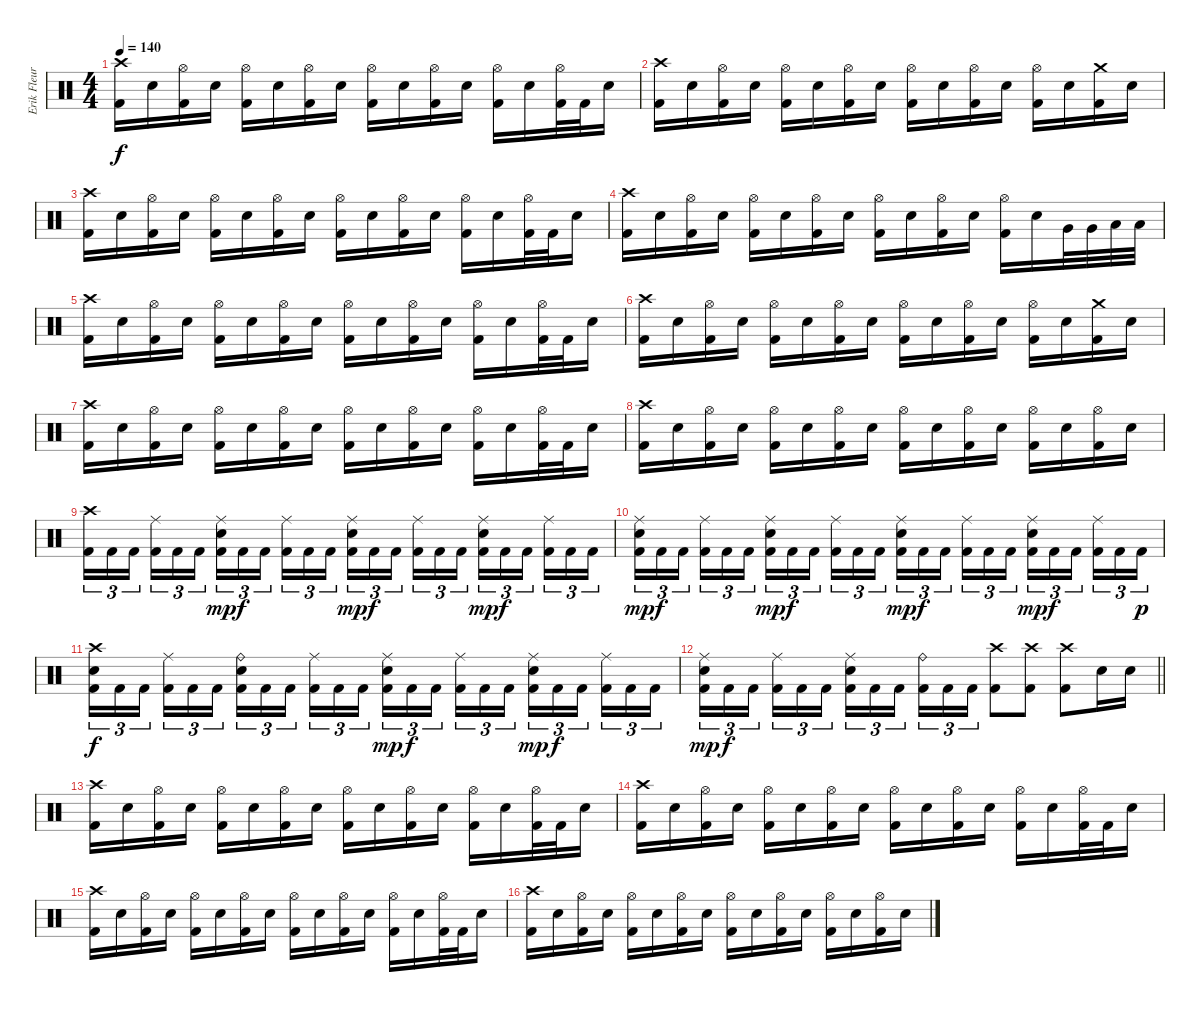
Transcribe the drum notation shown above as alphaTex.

\track ("Erik Fleuren" "Erik Fleur") {instrument percussion}
\staff {score}
\articulation defaults
\ts (4 4)
\tempo 140
\clef neutral
\ks c
("Crash high (hit)" "Kick (hit) 2").16{dy f} "Electric Snare (hit)".16 ("Hi-Hat (open)" "Kick (hit) 2").16 "Electric Snare (hit)".16 ("Hi-Hat (open)" "Kick (hit) 2").16 "Electric Snare (hit)".16 ("Hi-Hat (open)" "Kick (hit) 2").16 "Electric Snare (hit)".16 ("Hi-Hat (open)" "Kick (hit) 2").16 "Electric Snare (hit)".16 ("Hi-Hat (open)" "Kick (hit) 2").16 "Electric Snare (hit)".16 ("Hi-Hat (open)" "Kick (hit) 2").16 "Electric Snare (hit)".16 ("Hi-Hat (open)" "Kick (hit) 2").32 "Kick (hit) 2".32 "Electric Snare (hit)".16 |
("Crash high (hit)" "Kick (hit) 2").16 "Electric Snare (hit)".16 ("Hi-Hat (open)" "Kick (hit) 2").16 "Electric Snare (hit)".16 ("Hi-Hat (open)" "Kick (hit) 2").16 "Electric Snare (hit)".16 ("Hi-Hat (open)" "Kick (hit) 2").16 "Electric Snare (hit)".16 ("Hi-Hat (open)" "Kick (hit) 2").16 "Electric Snare (hit)".16 ("Hi-Hat (open)" "Kick (hit) 2").16 "Electric Snare (hit)".16 ("Hi-Hat (open)" "Kick (hit) 2").16 "Electric Snare (hit)".16 ("Crash medium (hit)" "Kick (hit) 2").16 "Electric Snare (hit)".16 |
("Crash high (hit)" "Kick (hit) 2").16 "Electric Snare (hit)".16 ("Hi-Hat (open)" "Kick (hit) 2").16 "Electric Snare (hit)".16 ("Hi-Hat (open)" "Kick (hit) 2").16 "Electric Snare (hit)".16 ("Hi-Hat (open)" "Kick (hit) 2").16 "Electric Snare (hit)".16 ("Hi-Hat (open)" "Kick (hit) 2").16 "Electric Snare (hit)".16 ("Hi-Hat (open)" "Kick (hit) 2").16 "Electric Snare (hit)".16 ("Hi-Hat (open)" "Kick (hit) 2").16 "Electric Snare (hit)".16 ("Hi-Hat (open)" "Kick (hit) 2").32 "Kick (hit) 2".32 "Electric Snare (hit)".16 |
("Crash high (hit)" "Kick (hit) 2").16 "Electric Snare (hit)".16 ("Hi-Hat (open)" "Kick (hit) 2").16 "Electric Snare (hit)".16 ("Hi-Hat (open)" "Kick (hit) 2").16 "Electric Snare (hit)".16 ("Hi-Hat (open)" "Kick (hit) 2").16 "Electric Snare (hit)".16 ("Hi-Hat (open)" "Kick (hit) 2").16 "Electric Snare (hit)".16 ("Hi-Hat (open)" "Kick (hit) 2").16 "Electric Snare (hit)".16 ("Hi-Hat (open)" "Kick (hit) 2").16 "Electric Snare (hit)".16 "Very Low Tom (hit)".32 "Very Low Tom (hit)".32 "Low Floor Tom (hit)".32 "Low Floor Tom (hit)".32 |
("Crash high (hit)" "Kick (hit) 2").16 "Electric Snare (hit)".16 ("Hi-Hat (open)" "Kick (hit) 2").16 "Electric Snare (hit)".16 ("Hi-Hat (open)" "Kick (hit) 2").16 "Electric Snare (hit)".16 ("Hi-Hat (open)" "Kick (hit) 2").16 "Electric Snare (hit)".16 ("Hi-Hat (open)" "Kick (hit) 2").16 "Electric Snare (hit)".16 ("Hi-Hat (open)" "Kick (hit) 2").16 "Electric Snare (hit)".16 ("Hi-Hat (open)" "Kick (hit) 2").16 "Electric Snare (hit)".16 ("Hi-Hat (open)" "Kick (hit) 2").32 "Kick (hit) 2".32 "Electric Snare (hit)".16 |
("Crash high (hit)" "Kick (hit) 2").16 "Electric Snare (hit)".16 ("Hi-Hat (open)" "Kick (hit) 2").16 "Electric Snare (hit)".16 ("Hi-Hat (open)" "Kick (hit) 2").16 "Electric Snare (hit)".16 ("Hi-Hat (open)" "Kick (hit) 2").16 "Electric Snare (hit)".16 ("Hi-Hat (open)" "Kick (hit) 2").16 "Electric Snare (hit)".16 ("Hi-Hat (open)" "Kick (hit) 2").16 "Electric Snare (hit)".16 ("Hi-Hat (open)" "Kick (hit) 2").16 "Electric Snare (hit)".16 ("Crash medium (hit)" "Kick (hit) 2").16 "Electric Snare (hit)".16 |
("Crash high (hit)" "Kick (hit) 2").16 "Electric Snare (hit)".16 ("Hi-Hat (open)" "Kick (hit) 2").16 "Electric Snare (hit)".16 ("Hi-Hat (open)" "Kick (hit) 2").16 "Electric Snare (hit)".16 ("Hi-Hat (open)" "Kick (hit) 2").16 "Electric Snare (hit)".16 ("Hi-Hat (open)" "Kick (hit) 2").16 "Electric Snare (hit)".16 ("Hi-Hat (open)" "Kick (hit) 2").16 "Electric Snare (hit)".16 ("Hi-Hat (open)" "Kick (hit) 2").16 "Electric Snare (hit)".16 ("Hi-Hat (open)" "Kick (hit) 2").32 "Kick (hit) 2".32 "Electric Snare (hit)".16 |
("Crash high (hit)" "Kick (hit) 2").16 "Electric Snare (hit)".16 ("Hi-Hat (open)" "Kick (hit) 2").16 "Electric Snare (hit)".16 ("Hi-Hat (open)" "Kick (hit) 2").16 "Electric Snare (hit)".16 ("Hi-Hat (open)" "Kick (hit) 2").16 "Electric Snare (hit)".16 ("Hi-Hat (open)" "Kick (hit) 2").16 "Electric Snare (hit)".16 ("Hi-Hat (open)" "Kick (hit) 2").16 "Electric Snare (hit)".16 ("Hi-Hat (open)" "Kick (hit) 2").16 "Electric Snare (hit)".16 ("Hi-Hat (open)" "Kick (hit) 2").16 "Electric Snare (hit)".16 |
("Crash high (hit)" "Kick (hit) 2").16{tu (3 2)} "Kick (hit) 2".16{tu (3 2)} "Kick (hit) 2".16{tu (3 2) beam splitsecondary} ("Ride (middle)" "Kick (hit) 2").16{tu (3 2)} "Kick (hit) 2".16{tu (3 2)} "Kick (hit) 2".16{tu (3 2)} ("Ride (middle)" "Electric Snare (hit)" "Kick (hit) 2").16{tu (3 2) dy mp} "Kick (hit) 2".16{tu (3 2) dy f} "Kick (hit) 2".16{tu (3 2) beam splitsecondary} ("Ride (middle)" "Kick (hit) 2").16{tu (3 2)} "Kick (hit) 2".16{tu (3 2)} "Kick (hit) 2".16{tu (3 2)} ("Ride (middle)" "Electric Snare (hit)" "Kick (hit) 2").16{tu (3 2) dy mp} "Kick (hit) 2".16{tu (3 2) dy f} "Kick (hit) 2".16{tu (3 2) beam splitsecondary} ("Ride (middle)" "Kick (hit) 2").16{tu (3 2)} "Kick (hit) 2".16{tu (3 2)} "Kick (hit) 2".16{tu (3 2)} ("Ride (middle)" "Electric Snare (hit)" "Kick (hit) 2").16{tu (3 2) dy mp} "Kick (hit) 2".16{tu (3 2) dy f} "Kick (hit) 2".16{tu (3 2) beam splitsecondary} ("Ride (middle)" "Kick (hit) 2").16{tu (3 2)} "Kick (hit) 2".16{tu (3 2)} "Kick (hit) 2".16{tu (3 2)} |
("Ride (middle)" "Electric Snare (hit)" "Kick (hit) 2").16{tu (3 2) dy mp} "Kick (hit) 2".16{tu (3 2) dy f} "Kick (hit) 2".16{tu (3 2) beam splitsecondary} ("Ride (middle)" "Kick (hit) 2").16{tu (3 2)} "Kick (hit) 2".16{tu (3 2)} "Kick (hit) 2".16{tu (3 2)} ("Ride (middle)" "Electric Snare (hit)" "Kick (hit) 2").16{tu (3 2) dy mp} "Kick (hit) 2".16{tu (3 2) dy f} "Kick (hit) 2".16{tu (3 2) beam splitsecondary} ("Ride (middle)" "Kick (hit) 2").16{tu (3 2)} "Kick (hit) 2".16{tu (3 2)} "Kick (hit) 2".16{tu (3 2)} ("Ride (middle)" "Electric Snare (hit)" "Kick (hit) 2").16{tu (3 2) dy mp} "Kick (hit) 2".16{tu (3 2) dy f} "Kick (hit) 2".16{tu (3 2) beam splitsecondary} ("Ride (middle)" "Kick (hit) 2").16{tu (3 2)} "Kick (hit) 2".16{tu (3 2)} "Kick (hit) 2".16{tu (3 2)} ("Ride (middle)" "Electric Snare (hit)" "Kick (hit) 2").16{tu (3 2) dy mp} "Kick (hit) 2".16{tu (3 2) dy f} "Kick (hit) 2".16{tu (3 2) beam splitsecondary} ("Ride (middle)" "Kick (hit) 2").16{tu (3 2)} "Kick (hit) 2".16{tu (3 2)} "Kick (hit) 2".16{tu (3 2) dy p} |
("Crash high (hit)" "Electric Snare (hit)" "Kick (hit) 2").16{tu (3 2) dy f} "Kick (hit) 2".16{tu (3 2)} "Kick (hit) 2".16{tu (3 2) beam splitsecondary} ("Ride (middle)" "Kick (hit) 2").16{tu (3 2)} "Kick (hit) 2".16{tu (3 2)} "Kick (hit) 2".16{tu (3 2)} ("Ride (bell)" "Electric Snare (hit)" "Kick (hit) 2").16{tu (3 2)} "Kick (hit) 2".16{tu (3 2)} "Kick (hit) 2".16{tu (3 2) beam splitsecondary} ("Ride (middle)" "Kick (hit) 2").16{tu (3 2)} "Kick (hit) 2".16{tu (3 2)} "Kick (hit) 2".16{tu (3 2)} ("Ride (middle)" "Electric Snare (hit)" "Kick (hit) 2").16{tu (3 2) dy mp} "Kick (hit) 2".16{tu (3 2) dy f} "Kick (hit) 2".16{tu (3 2) beam splitsecondary} ("Ride (middle)" "Kick (hit) 2").16{tu (3 2)} "Kick (hit) 2".16{tu (3 2)} "Kick (hit) 2".16{tu (3 2)} ("Ride (middle)" "Electric Snare (hit)" "Kick (hit) 2").16{tu (3 2) dy mp} "Kick (hit) 2".16{tu (3 2) dy f} "Kick (hit) 2".16{tu (3 2) beam splitsecondary} ("Ride (middle)" "Kick (hit) 2").16{tu (3 2)} "Kick (hit) 2".16{tu (3 2)} "Kick (hit) 2".16{tu (3 2)} |
\barLineRight lightlight
("Ride (middle)" "Electric Snare (hit)" "Kick (hit) 2").16{tu (3 2) dy mp} "Kick (hit) 2".16{tu (3 2) dy f} "Kick (hit) 2".16{tu (3 2) beam splitsecondary} ("Ride (middle)" "Kick (hit) 2").16{tu (3 2)} "Kick (hit) 2".16{tu (3 2)} "Kick (hit) 2".16{tu (3 2)} ("Ride (middle)" "Electric Snare (hit)" "Kick (hit) 2").16{tu (3 2)} "Kick (hit) 2".16{tu (3 2)} "Kick (hit) 2".16{tu (3 2) beam splitsecondary} ("Ride (bell)" "Kick (hit) 2").16{tu (3 2)} "Kick (hit) 2".16{tu (3 2)} "Kick (hit) 2".16{tu (3 2)} ("Crash high (hit)" "Kick (hit) 2").8 ("Crash high (hit)" "Kick (hit) 2").8 ("Crash high (hit)" "Kick (hit) 2").8 "Electric Snare (hit)".16 "Electric Snare (hit)".16 |
("Crash high (hit)" "Kick (hit) 2").16 "Electric Snare (hit)".16 ("Hi-Hat (open)" "Kick (hit) 2").16 "Electric Snare (hit)".16 ("Hi-Hat (open)" "Kick (hit) 2").16 "Electric Snare (hit)".16 ("Hi-Hat (open)" "Kick (hit) 2").16 "Electric Snare (hit)".16 ("Hi-Hat (open)" "Kick (hit) 2").16 "Electric Snare (hit)".16 ("Hi-Hat (open)" "Kick (hit) 2").16 "Electric Snare (hit)".16 ("Hi-Hat (open)" "Kick (hit) 2").16 "Electric Snare (hit)".16 ("Hi-Hat (open)" "Kick (hit) 2").32 "Kick (hit) 2".32 "Electric Snare (hit)".16 |
("Crash high (hit)" "Kick (hit) 2").16 "Electric Snare (hit)".16 ("Hi-Hat (open)" "Kick (hit) 2").16 "Electric Snare (hit)".16 ("Hi-Hat (open)" "Kick (hit) 2").16 "Electric Snare (hit)".16 ("Hi-Hat (open)" "Kick (hit) 2").16 "Electric Snare (hit)".16 ("Hi-Hat (open)" "Kick (hit) 2").16 "Electric Snare (hit)".16 ("Hi-Hat (open)" "Kick (hit) 2").16 "Electric Snare (hit)".16 ("Hi-Hat (open)" "Kick (hit) 2").16 "Electric Snare (hit)".16 ("Hi-Hat (open)" "Kick (hit) 2").32 "Kick (hit) 2".32 "Electric Snare (hit)".16 |
("Crash high (hit)" "Kick (hit) 2").16 "Electric Snare (hit)".16 ("Hi-Hat (open)" "Kick (hit) 2").16 "Electric Snare (hit)".16 ("Hi-Hat (open)" "Kick (hit) 2").16 "Electric Snare (hit)".16 ("Hi-Hat (open)" "Kick (hit) 2").16 "Electric Snare (hit)".16 ("Hi-Hat (open)" "Kick (hit) 2").16 "Electric Snare (hit)".16 ("Hi-Hat (open)" "Kick (hit) 2").16 "Electric Snare (hit)".16 ("Hi-Hat (open)" "Kick (hit) 2").16 "Electric Snare (hit)".16 ("Hi-Hat (open)" "Kick (hit) 2").32 "Kick (hit) 2".32 "Electric Snare (hit)".16 |
("Crash high (hit)" "Kick (hit) 2").16 "Electric Snare (hit)".16 ("Hi-Hat (open)" "Kick (hit) 2").16 "Electric Snare (hit)".16 ("Hi-Hat (open)" "Kick (hit) 2").16 "Electric Snare (hit)".16 ("Hi-Hat (open)" "Kick (hit) 2").16 "Electric Snare (hit)".16 ("Hi-Hat (open)" "Kick (hit) 2").16 "Electric Snare (hit)".16 ("Hi-Hat (open)" "Kick (hit) 2").16 "Electric Snare (hit)".16 ("Hi-Hat (open)" "Kick (hit) 2").16 "Electric Snare (hit)".16 ("Hi-Hat (open)" "Kick (hit) 2").16 "Electric Snare (hit)".16
